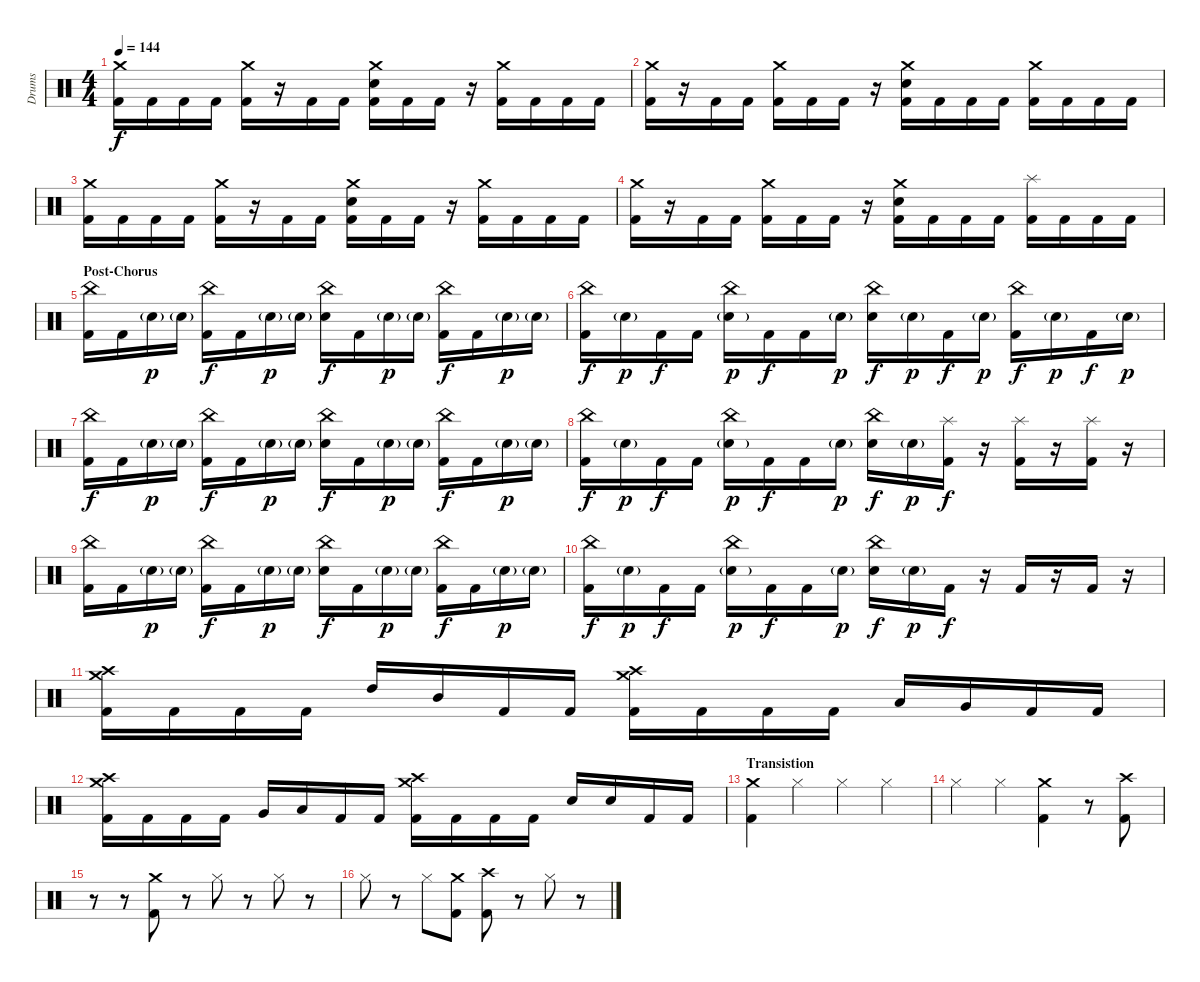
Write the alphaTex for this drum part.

\track ("Drums" "Drums") {instrument percussion}
\staff {score}
\articulation defaults
\ts (4 4)
\tempo 144
\clef neutral
\ks c
("Crash medium (hit)" "Kick (hit) 2").16{dy f} "Kick (hit) 2".16 "Kick (hit) 2".16 "Kick (hit) 2".16 ("Crash medium (hit)" "Kick (hit) 2").16 r.16 "Kick (hit) 2".16 "Kick (hit) 2".16 ("Crash medium (hit)" "Electric Snare (hit)" "Kick (hit) 2").16 "Kick (hit) 2".16 "Kick (hit) 2".16 r.16 ("Crash medium (hit)" "Kick (hit) 2").16 "Kick (hit) 2".16 "Kick (hit) 2".16 "Kick (hit) 2".16 |
("Crash medium (hit)" "Kick (hit) 2").16 r.16 "Kick (hit) 2".16 "Kick (hit) 2".16 ("Crash medium (hit)" "Kick (hit) 2").16 "Kick (hit) 2".16 "Kick (hit) 2".16 r.16 ("Crash medium (hit)" "Electric Snare (hit)" "Kick (hit) 2").16 "Kick (hit) 2".16 "Kick (hit) 2".16 "Kick (hit) 2".16 ("Crash medium (hit)" "Kick (hit) 2").16 "Kick (hit) 2".16 "Kick (hit) 2".16 "Kick (hit) 2".16 |
("Crash medium (hit)" "Kick (hit) 2").16 "Kick (hit) 2".16 "Kick (hit) 2".16 "Kick (hit) 2".16 ("Crash medium (hit)" "Kick (hit) 2").16 r.16 "Kick (hit) 2".16 "Kick (hit) 2".16 ("Crash medium (hit)" "Electric Snare (hit)" "Kick (hit) 2").16 "Kick (hit) 2".16 "Kick (hit) 2".16 r.16 ("Crash medium (hit)" "Kick (hit) 2").16 "Kick (hit) 2".16 "Kick (hit) 2".16 "Kick (hit) 2".16 |
("Crash medium (hit)" "Kick (hit) 2").16 r.16 "Kick (hit) 2".16 "Kick (hit) 2".16 ("Crash medium (hit)" "Kick (hit) 2").16 "Kick (hit) 2".16 "Kick (hit) 2".16 r.16 ("Crash medium (hit)" "Electric Snare (hit)" "Kick (hit) 2").16 "Kick (hit) 2".16 "Kick (hit) 2".16 "Kick (hit) 2".16 ("Splash (hit)" "Kick (hit) 2").16 "Kick (hit) 2".16 "Kick (hit) 2".16 "Kick (hit) 2".16 |
\section ("" "Post-Chorus")
("China (hit)" "Kick (hit) 2").16 "Kick (hit) 2".16 "Snare (hit) 2"{g}.16{dy p} "Snare (hit) 2"{g}.16 ("China (hit)" "Kick (hit) 2").16{dy f} "Kick (hit) 2".16 "Snare (hit) 2"{g}.16{dy p} "Snare (hit) 2"{g}.16 ("China (hit)" "Electric Snare (hit)").16{dy f} "Kick (hit) 2".16 "Snare (hit) 2"{g}.16{dy p} "Snare (hit) 2"{g}.16 ("China (hit)" "Kick (hit) 2").16{dy f} "Kick (hit) 2".16 "Snare (hit) 2"{g}.16{dy p} "Snare (hit) 2"{g}.16 |
("China (hit)" "Kick (hit) 2").16{dy f} "Snare (hit) 2"{g}.16{dy p} "Kick (hit) 2".16{dy f} "Kick (hit) 2".16 ("China (hit)" "Snare (hit) 2"{g}).16{dy p} "Kick (hit) 2".16{dy f} "Kick (hit) 2".16 "Snare (hit) 2"{g}.16{dy p} ("China (hit)" "Electric Snare (hit)").16{dy f} "Snare (hit) 2"{g}.16{dy p} "Kick (hit) 2".16{dy f} "Snare (hit) 2"{g}.16{dy p} ("China (hit)" "Kick (hit) 2").16{dy f} "Snare (hit) 2"{g}.16{dy p} "Kick (hit) 2".16{dy f} "Snare (hit) 2"{g}.16{dy p} |
("China (hit)" "Kick (hit) 2").16{dy f} "Kick (hit) 2".16 "Snare (hit) 2"{g}.16{dy p} "Snare (hit) 2"{g}.16 ("China (hit)" "Kick (hit) 2").16{dy f} "Kick (hit) 2".16 "Snare (hit) 2"{g}.16{dy p} "Snare (hit) 2"{g}.16 ("China (hit)" "Electric Snare (hit)").16{dy f} "Kick (hit) 2".16 "Snare (hit) 2"{g}.16{dy p} "Snare (hit) 2"{g}.16 ("China (hit)" "Kick (hit) 2").16{dy f} "Kick (hit) 2".16 "Snare (hit) 2"{g}.16{dy p} "Snare (hit) 2"{g}.16 |
("China (hit)" "Kick (hit) 2").16{dy f} "Snare (hit) 2"{g}.16{dy p} "Kick (hit) 2".16{dy f} "Kick (hit) 2".16 ("China (hit)" "Snare (hit) 2"{g}).16{dy p} "Kick (hit) 2".16{dy f} "Kick (hit) 2".16 "Snare (hit) 2"{g}.16{dy p} ("China (hit)" "Electric Snare (hit)").16{dy f} "Snare (hit) 2"{g}.16{dy p} ("Splash (hit)" "Kick (hit) 2").16{dy f} r.16 ("Splash (hit)" "Kick (hit) 2").16 r.16 ("Splash (hit)" "Kick (hit) 2").16 r.16 |
("China (hit)" "Kick (hit) 2").16 "Kick (hit) 2".16 "Snare (hit) 2"{g}.16{dy p} "Snare (hit) 2"{g}.16 ("China (hit)" "Kick (hit) 2").16{dy f} "Kick (hit) 2".16 "Snare (hit) 2"{g}.16{dy p} "Snare (hit) 2"{g}.16 ("China (hit)" "Electric Snare (hit)").16{dy f} "Kick (hit) 2".16 "Snare (hit) 2"{g}.16{dy p} "Snare (hit) 2"{g}.16 ("China (hit)" "Kick (hit) 2").16{dy f} "Kick (hit) 2".16 "Snare (hit) 2"{g}.16{dy p} "Snare (hit) 2"{g}.16 |
("China (hit)" "Kick (hit) 2").16{dy f} "Snare (hit) 2"{g}.16{dy p} "Kick (hit) 2".16{dy f} "Kick (hit) 2".16 ("China (hit)" "Snare (hit) 2"{g}).16{dy p} "Kick (hit) 2".16{dy f} "Kick (hit) 2".16 "Snare (hit) 2"{g}.16{dy p} ("China (hit)" "Electric Snare (hit)").16{dy f} "Snare (hit) 2"{g}.16{dy p} "Kick (hit) 2".16{dy f} r.16 "Kick (hit) 2".16 r.16 "Kick (hit) 2".16 r.16 |
("Crash medium (hit)" "Crash high (hit)" "Kick (hit) 2").16 "Kick (hit) 2".16 "Kick (hit) 2".16 "Kick (hit) 2".16 "High Tom (hit)".16 "Mid Tom (hit)".16 "Kick (hit) 2".16 "Kick (hit) 2".16 ("Crash medium (hit)" "Crash high (hit)" "Kick (hit) 2").16 "Kick (hit) 2".16 "Kick (hit) 2".16 "Kick (hit) 2".16 "Low Tom (hit)".16 "Very Low Tom (hit)".16 "Kick (hit) 2".16 "Kick (hit) 2".16 |
("Crash medium (hit)" "Crash high (hit)" "Kick (hit) 2").16 "Kick (hit) 2".16 "Kick (hit) 2".16 "Kick (hit) 2".16 "Very Low Tom (hit)".16 "Low Floor Tom (hit)".16 "Kick (hit) 2".16 "Kick (hit) 2".16 ("Crash medium (hit)" "Crash high (hit)" "Kick (hit) 2").16 "Kick (hit) 2".16 "Kick (hit) 2".16 "Kick (hit) 2".16 "Electric Snare (hit)".16 "Electric Snare (hit)".16 "Kick (hit) 2".16 "Kick (hit) 2".16 |
\section ("" "Transistion")
("Crash medium (hit)" "Kick (hit) 2").4 "Hi-Hat (closed)".4 "Hi-Hat (closed)".4 "Hi-Hat (closed)".4 |
"Hi-Hat (closed)".4 "Hi-Hat (closed)".4 ("Crash medium (hit)" "Kick (hit) 2").4 r.8 ("Crash high (hit)" "Kick (hit) 2").8 |
r.8 r.8 ("Crash medium (hit)" "Kick (hit) 2").8 r.8 "Hi-Hat (closed)".8 r.8 "Hi-Hat (closed)".8 r.8 |
"Hi-Hat (closed)".8 r.8 "Hi-Hat (closed)".8 ("Crash medium (hit)" "Kick (hit) 2").8 ("Crash high (hit)" "Kick (hit) 2").8 r.8 "Hi-Hat (closed)".8 r.8
